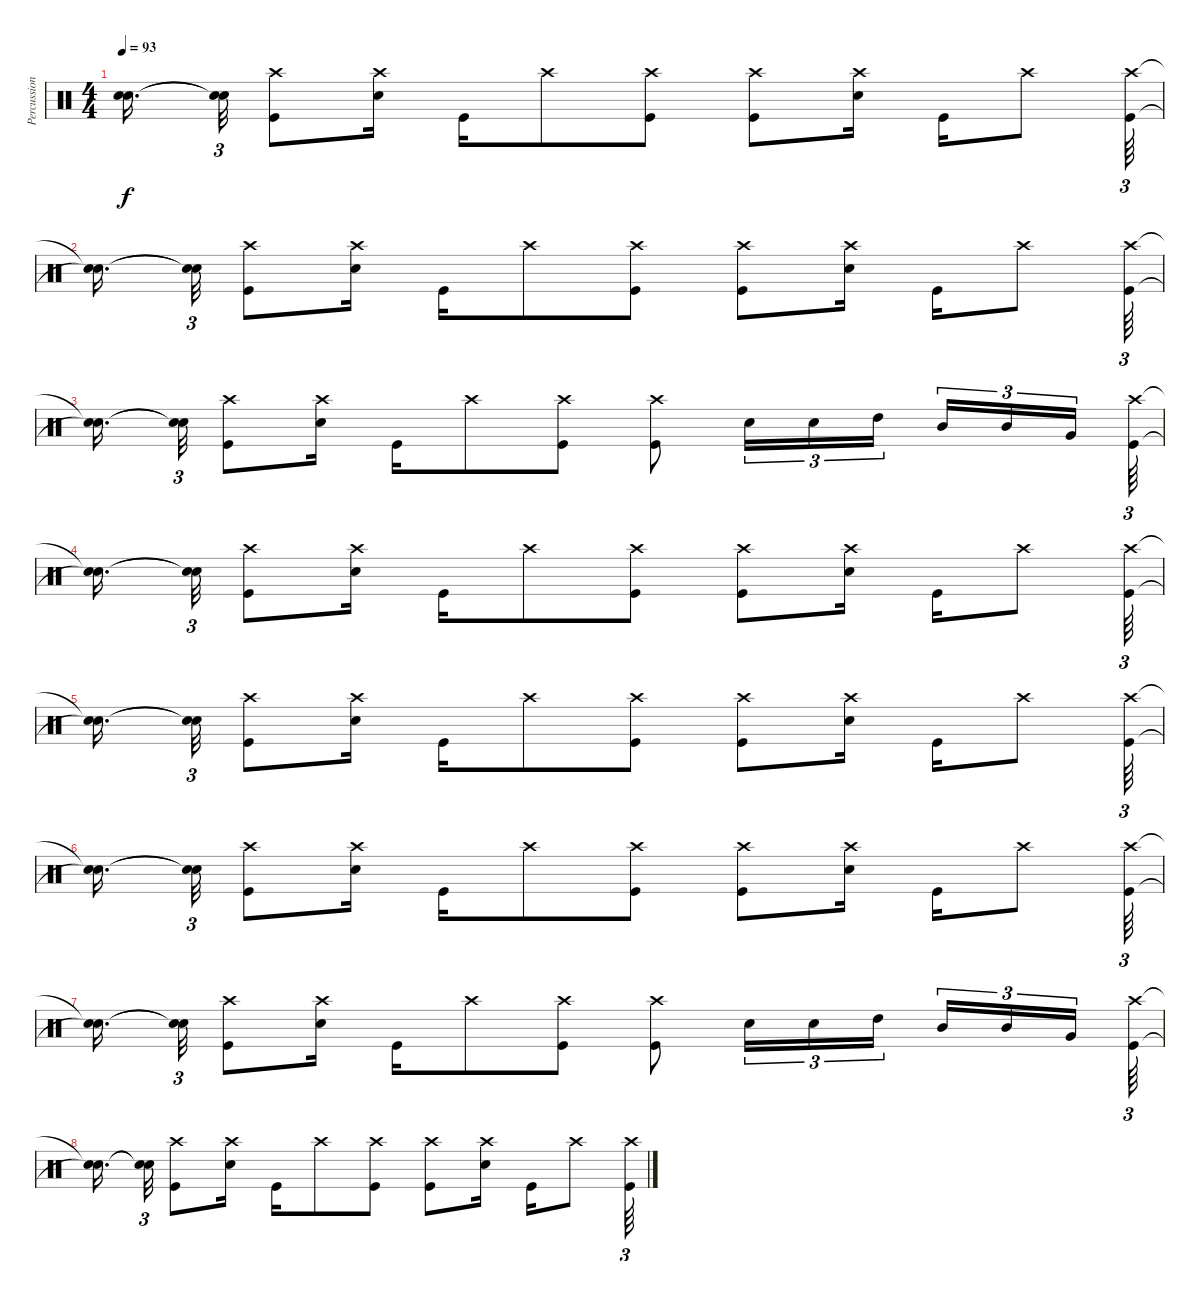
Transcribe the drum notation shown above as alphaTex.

\track ("Percussion" "Percussion") {instrument percussion}
\staff {score}
\articulation defaults
\ts (4 4)
\tempo 93
\clef neutral
\ks c
("Snare (hit)"{t} "Snare (hit)"{t}).16{d dy f beam splitsecondary} ("Snare (hit)"{t} "Snare (hit)"{t}).32{tu (3 2)} ("Crash high (hit)" "Kick (hit)").8 ("Crash high (hit)" "Snare (hit) 2").16 "Kick (hit)".16 "Crash high (hit)".8 ("Crash high (hit)" "Kick (hit)").8 ("Crash high (hit)" "Kick (hit)").8 ("Crash high (hit)" "Snare (hit) 2").16 "Kick (hit)".16 "Crash high (hit)".8 ("Crash high (hit)" "Kick (hit)").64{tu (3 2)} |
("Snare (hit)"{t} "Snare (hit)"{t}).16{d beam splitsecondary} ("Snare (hit)"{t} "Snare (hit)"{t}).32{tu (3 2)} ("Crash high (hit)" "Kick (hit)").8 ("Crash high (hit)" "Snare (hit) 2").16 "Kick (hit)".16 "Crash high (hit)".8 ("Crash high (hit)" "Kick (hit)").8 ("Crash high (hit)" "Kick (hit)").8 ("Crash high (hit)" "Snare (hit) 2").16 "Kick (hit)".16 "Crash high (hit)".8 ("Crash high (hit)" "Kick (hit)").64{tu (3 2)} |
("Snare (hit)"{t} "Snare (hit)"{t}).16{d beam splitsecondary} ("Snare (hit)"{t} "Snare (hit)"{t}).32{tu (3 2)} ("Crash high (hit)" "Kick (hit)").8 ("Crash high (hit)" "Snare (hit) 2").16 "Kick (hit)".16 "Crash high (hit)".8 ("Crash high (hit)" "Kick (hit)").8 ("Crash high (hit)" "Kick (hit)").8 "Snare (hit) 2".16{tu (3 2)} "Snare (hit) 2".16{tu (3 2)} "High Tom (hit)".16{tu (3 2) beam splitsecondary} "Mid Tom (hit)".16{tu (3 2)} "Mid Tom (hit)".16{tu (3 2)} "Very Low Tom (hit)".16{tu (3 2) beam splitsecondary} ("Crash high (hit)" "Kick (hit)").64{tu (3 2)} |
("Snare (hit)"{t} "Snare (hit)"{t}).16{d beam splitsecondary} ("Snare (hit)"{t} "Snare (hit)"{t}).32{tu (3 2)} ("Crash high (hit)" "Kick (hit)").8 ("Crash high (hit)" "Snare (hit) 2").16 "Kick (hit)".16 "Crash high (hit)".8 ("Crash high (hit)" "Kick (hit)").8 ("Crash high (hit)" "Kick (hit)").8 ("Crash high (hit)" "Snare (hit) 2").16 "Kick (hit)".16 "Crash high (hit)".8 ("Crash high (hit)" "Kick (hit)").64{tu (3 2)} |
("Snare (hit)"{t} "Snare (hit)"{t}).16{d beam splitsecondary} ("Snare (hit)"{t} "Snare (hit)"{t}).32{tu (3 2)} ("Crash high (hit)" "Kick (hit)").8 ("Crash high (hit)" "Snare (hit) 2").16 "Kick (hit)".16 "Crash high (hit)".8 ("Crash high (hit)" "Kick (hit)").8 ("Crash high (hit)" "Kick (hit)").8 ("Crash high (hit)" "Snare (hit) 2").16 "Kick (hit)".16 "Crash high (hit)".8 ("Crash high (hit)" "Kick (hit)").64{tu (3 2)} |
("Snare (hit)"{t} "Snare (hit)"{t}).16{d beam splitsecondary} ("Snare (hit)"{t} "Snare (hit)"{t}).32{tu (3 2)} ("Crash high (hit)" "Kick (hit)").8 ("Crash high (hit)" "Snare (hit) 2").16 "Kick (hit)".16 "Crash high (hit)".8 ("Crash high (hit)" "Kick (hit)").8 ("Crash high (hit)" "Kick (hit)").8 ("Crash high (hit)" "Snare (hit) 2").16 "Kick (hit)".16 "Crash high (hit)".8 ("Crash high (hit)" "Kick (hit)").64{tu (3 2)} |
("Snare (hit)"{t} "Snare (hit)"{t}).16{d beam splitsecondary} ("Snare (hit)"{t} "Snare (hit)"{t}).32{tu (3 2)} ("Crash high (hit)" "Kick (hit)").8 ("Crash high (hit)" "Snare (hit) 2").16 "Kick (hit)".16 "Crash high (hit)".8 ("Crash high (hit)" "Kick (hit)").8 ("Crash high (hit)" "Kick (hit)").8 "Snare (hit) 2".16{tu (3 2)} "Snare (hit) 2".16{tu (3 2)} "High Tom (hit)".16{tu (3 2) beam splitsecondary} "Mid Tom (hit)".16{tu (3 2)} "Mid Tom (hit)".16{tu (3 2)} "Very Low Tom (hit)".16{tu (3 2) beam splitsecondary} ("Crash high (hit)" "Kick (hit)").64{tu (3 2)} |
("Snare (hit)"{t} "Snare (hit)"{t}).16{d beam splitsecondary} ("Snare (hit)"{t} "Snare (hit)"{t}).32{tu (3 2)} ("Crash high (hit)" "Kick (hit)").8 ("Crash high (hit)" "Snare (hit) 2").16 "Kick (hit)".16 "Crash high (hit)".8 ("Crash high (hit)" "Kick (hit)").8 ("Crash high (hit)" "Kick (hit)").8 ("Crash high (hit)" "Snare (hit) 2").16 "Kick (hit)".16 "Crash high (hit)".8 ("Crash high (hit)" "Kick (hit)").64{tu (3 2)}
